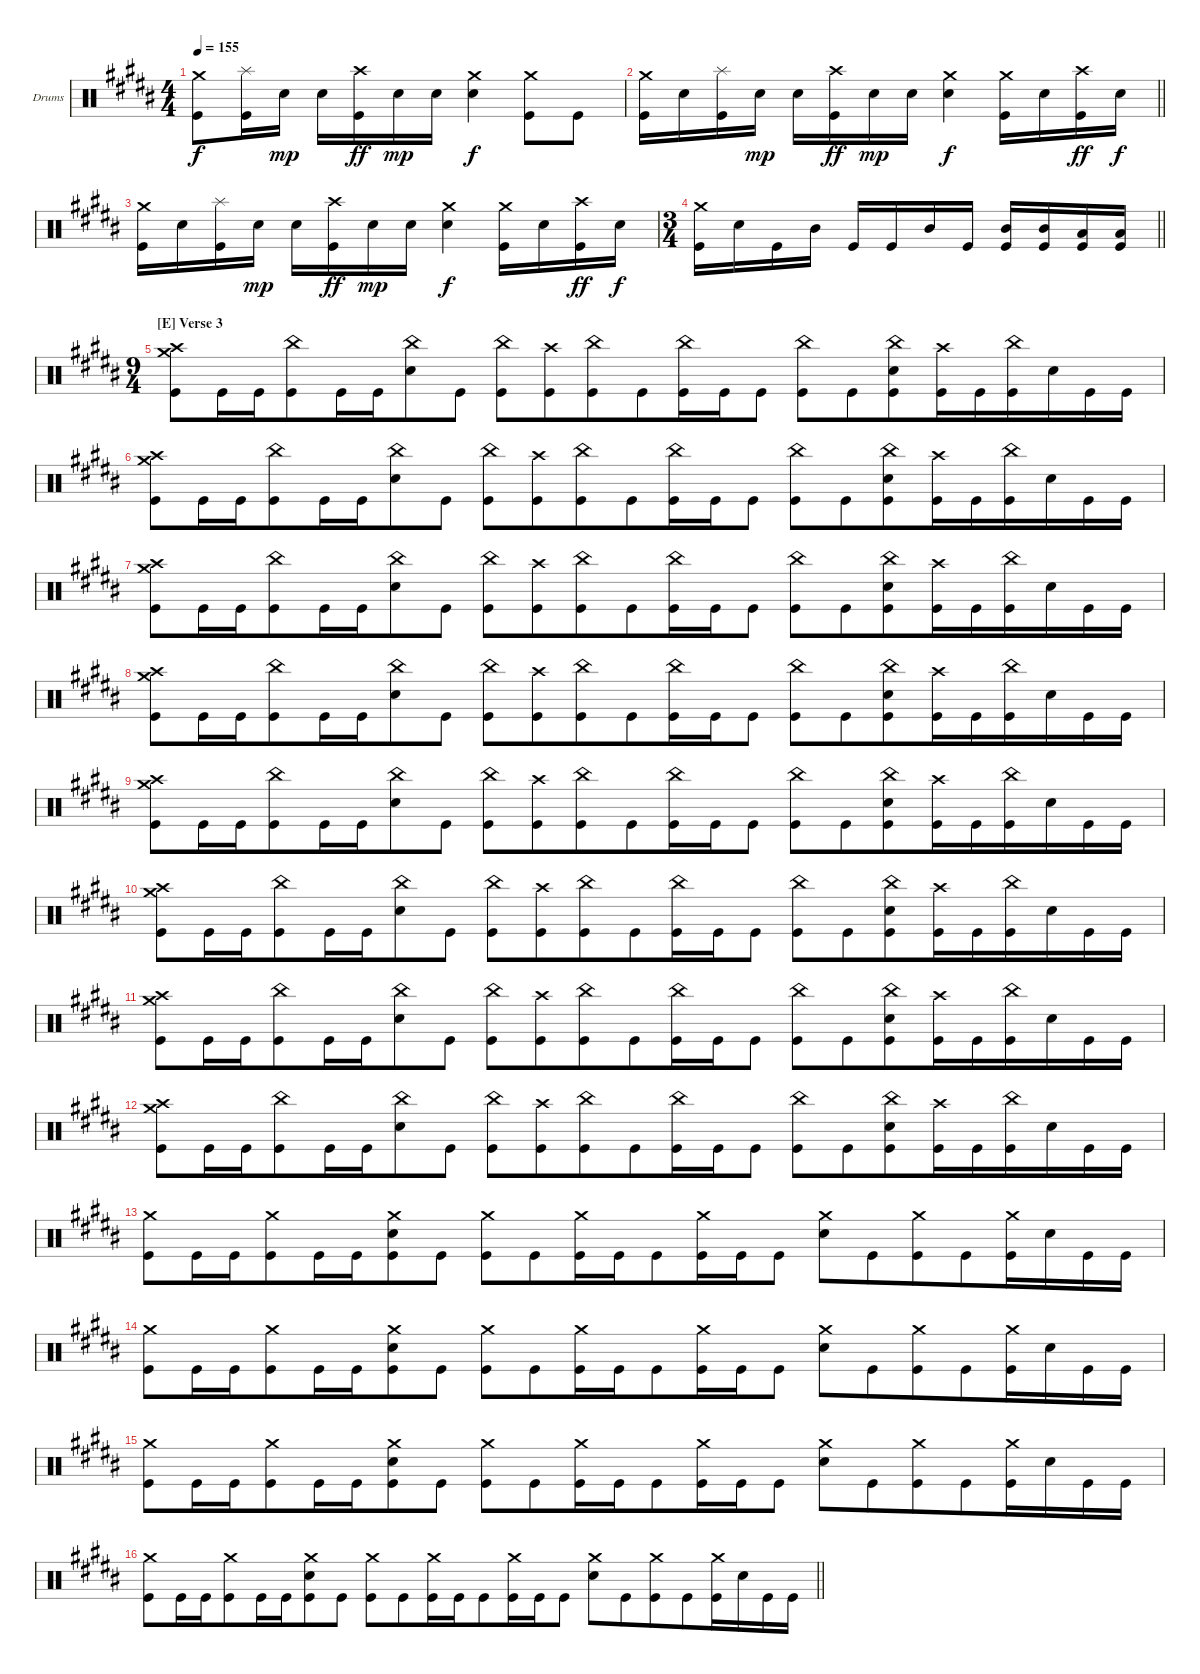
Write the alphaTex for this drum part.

\bracketExtendMode groupsimilarinstruments
\firstSystemTrackNameOrientation horizontal
\otherSystemsTrackNameOrientation horizontal
\track ("Navene Koperweis" "Drums") {instrument percussion}
\staff {score}
\articulation defaults
\ts (4 4)
\tempo 155
\clef neutral
\ks b
("Crash medium (hit)" "Kick (hit)").8{dy f} ("Splash (hit)" "Kick (hit)").16 "Snare (hit) 2".16{dy mp} "Snare (hit) 2".16 ("Crash high (hit)" "Kick (hit)").16{dy ff} "Snare (hit) 2".16{dy mp} "Snare (hit) 2".16 ("Crash medium (hit)" "Snare (hit) 2").4{dy f} ("Crash medium (hit)" "Kick (hit)").8 "Kick (hit)".8 |
\barLineRight lightlight
("Crash medium (hit)" "Kick (hit)").16 "Snare (hit) 2".16 ("Splash (hit)" "Kick (hit)").16 "Snare (hit) 2".16{dy mp} "Snare (hit) 2".16 ("Crash high (hit)" "Kick (hit)").16{dy ff} "Snare (hit) 2".16{dy mp} "Snare (hit) 2".16 ("Crash medium (hit)" "Snare (hit) 2").4{dy f} ("Crash medium (hit)" "Kick (hit)").16 "Snare (hit) 2".16 ("Crash high (hit)" "Kick (hit)").16{dy ff} "Snare (hit) 2".16{dy f} |
("Crash medium (hit)" "Kick (hit)").16 "Snare (hit) 2".16 ("Splash (hit)" "Kick (hit)").16 "Snare (hit) 2".16{dy mp} "Snare (hit) 2".16 ("Crash high (hit)" "Kick (hit)").16{dy ff} "Snare (hit) 2".16{dy mp} "Snare (hit) 2".16 ("Crash medium (hit)" "Snare (hit) 2").4{dy f} ("Crash medium (hit)" "Kick (hit)").16 "Snare (hit) 2".16 ("Crash high (hit)" "Kick (hit)").16{dy ff} "Snare (hit) 2".16{dy f} |
\ts (3 4)
\beaming (8 2 2 2)
\barLineRight lightlight
("Crash medium (hit)" "Kick (hit)").16 "Snare (hit) 2".16 "Kick (hit)".16 "Mid Tom (hit)".16 "Kick (hit)".16 "Kick (hit)".16 "Mid Tom (hit)".16 "Kick (hit)".16 ("Mid Tom (hit)" "Kick (hit)").16 ("Mid Tom (hit)" "Kick (hit)").16 ("Low Tom (hit)" "Kick (hit)").16 ("Low Tom (hit)" "Kick (hit)").16 |
\ts (9 4)
\beaming (8 6 6 6)
\section ("E" "Verse 3")
("Crash medium (hit)" "Crash high (hit)" "Kick (hit)").8 "Kick (hit)".16 "Kick (hit)".16 ("China (hit)" "Kick (hit)").8 "Kick (hit)".16 "Kick (hit)".16 ("China (hit)" "Snare (hit) 2").8 "Kick (hit)".8 ("China (hit)" "Kick (hit)").8 ("Crash high (hit)" "Kick (hit)").8 ("China (hit)" "Kick (hit)").8 "Kick (hit)".8 ("China (hit)" "Kick (hit)").16 "Kick (hit)".16 "Kick (hit)".8 ("China (hit)" "Kick (hit)").8 "Kick (hit)".8 ("China (hit)" "Snare (hit) 2" "Kick (hit)").8 ("Crash high (hit)" "Kick (hit)").16 "Kick (hit)".16 ("China (hit)" "Kick (hit)").16 "Snare (hit) 2".16 "Kick (hit)".16 "Kick (hit)".16 |
("Crash medium (hit)" "Crash high (hit)" "Kick (hit)").8 "Kick (hit)".16 "Kick (hit)".16 ("China (hit)" "Kick (hit)").8 "Kick (hit)".16 "Kick (hit)".16 ("China (hit)" "Snare (hit) 2").8 "Kick (hit)".8 ("China (hit)" "Kick (hit)").8 ("Crash high (hit)" "Kick (hit)").8 ("China (hit)" "Kick (hit)").8 "Kick (hit)".8 ("China (hit)" "Kick (hit)").16 "Kick (hit)".16 "Kick (hit)".8 ("China (hit)" "Kick (hit)").8 "Kick (hit)".8 ("China (hit)" "Snare (hit) 2" "Kick (hit)").8 ("Crash high (hit)" "Kick (hit)").16 "Kick (hit)".16 ("China (hit)" "Kick (hit)").16 "Snare (hit) 2".16 "Kick (hit)".16 "Kick (hit)".16 |
("Crash medium (hit)" "Crash high (hit)" "Kick (hit)").8 "Kick (hit)".16 "Kick (hit)".16 ("China (hit)" "Kick (hit)").8 "Kick (hit)".16 "Kick (hit)".16 ("China (hit)" "Snare (hit) 2").8 "Kick (hit)".8 ("China (hit)" "Kick (hit)").8 ("Crash high (hit)" "Kick (hit)").8 ("China (hit)" "Kick (hit)").8 "Kick (hit)".8 ("China (hit)" "Kick (hit)").16 "Kick (hit)".16 "Kick (hit)".8 ("China (hit)" "Kick (hit)").8 "Kick (hit)".8 ("China (hit)" "Snare (hit) 2" "Kick (hit)").8 ("Crash high (hit)" "Kick (hit)").16 "Kick (hit)".16 ("China (hit)" "Kick (hit)").16 "Snare (hit) 2".16 "Kick (hit)".16 "Kick (hit)".16 |
("Crash medium (hit)" "Crash high (hit)" "Kick (hit)").8 "Kick (hit)".16 "Kick (hit)".16 ("China (hit)" "Kick (hit)").8 "Kick (hit)".16 "Kick (hit)".16 ("China (hit)" "Snare (hit) 2").8 "Kick (hit)".8 ("China (hit)" "Kick (hit)").8 ("Crash high (hit)" "Kick (hit)").8 ("China (hit)" "Kick (hit)").8 "Kick (hit)".8 ("China (hit)" "Kick (hit)").16 "Kick (hit)".16 "Kick (hit)".8 ("China (hit)" "Kick (hit)").8 "Kick (hit)".8 ("China (hit)" "Snare (hit) 2" "Kick (hit)").8 ("Crash high (hit)" "Kick (hit)").16 "Kick (hit)".16 ("China (hit)" "Kick (hit)").16 "Snare (hit) 2".16 "Kick (hit)".16 "Kick (hit)".16 |
("Crash medium (hit)" "Crash high (hit)" "Kick (hit)").8 "Kick (hit)".16 "Kick (hit)".16 ("China (hit)" "Kick (hit)").8 "Kick (hit)".16 "Kick (hit)".16 ("China (hit)" "Snare (hit) 2").8 "Kick (hit)".8 ("China (hit)" "Kick (hit)").8 ("Crash high (hit)" "Kick (hit)").8 ("China (hit)" "Kick (hit)").8 "Kick (hit)".8 ("China (hit)" "Kick (hit)").16 "Kick (hit)".16 "Kick (hit)".8 ("China (hit)" "Kick (hit)").8 "Kick (hit)".8 ("China (hit)" "Snare (hit) 2" "Kick (hit)").8 ("Crash high (hit)" "Kick (hit)").16 "Kick (hit)".16 ("China (hit)" "Kick (hit)").16 "Snare (hit) 2".16 "Kick (hit)".16 "Kick (hit)".16 |
("Crash medium (hit)" "Crash high (hit)" "Kick (hit)").8 "Kick (hit)".16 "Kick (hit)".16 ("China (hit)" "Kick (hit)").8 "Kick (hit)".16 "Kick (hit)".16 ("China (hit)" "Snare (hit) 2").8 "Kick (hit)".8 ("China (hit)" "Kick (hit)").8 ("Crash high (hit)" "Kick (hit)").8 ("China (hit)" "Kick (hit)").8 "Kick (hit)".8 ("China (hit)" "Kick (hit)").16 "Kick (hit)".16 "Kick (hit)".8 ("China (hit)" "Kick (hit)").8 "Kick (hit)".8 ("China (hit)" "Snare (hit) 2" "Kick (hit)").8 ("Crash high (hit)" "Kick (hit)").16 "Kick (hit)".16 ("China (hit)" "Kick (hit)").16 "Snare (hit) 2".16 "Kick (hit)".16 "Kick (hit)".16 |
("Crash medium (hit)" "Crash high (hit)" "Kick (hit)").8 "Kick (hit)".16 "Kick (hit)".16 ("China (hit)" "Kick (hit)").8 "Kick (hit)".16 "Kick (hit)".16 ("China (hit)" "Snare (hit) 2").8 "Kick (hit)".8 ("China (hit)" "Kick (hit)").8 ("Crash high (hit)" "Kick (hit)").8 ("China (hit)" "Kick (hit)").8 "Kick (hit)".8 ("China (hit)" "Kick (hit)").16 "Kick (hit)".16 "Kick (hit)".8 ("China (hit)" "Kick (hit)").8 "Kick (hit)".8 ("China (hit)" "Snare (hit) 2" "Kick (hit)").8 ("Crash high (hit)" "Kick (hit)").16 "Kick (hit)".16 ("China (hit)" "Kick (hit)").16 "Snare (hit) 2".16 "Kick (hit)".16 "Kick (hit)".16 |
("Crash medium (hit)" "Crash high (hit)" "Kick (hit)").8 "Kick (hit)".16 "Kick (hit)".16 ("China (hit)" "Kick (hit)").8 "Kick (hit)".16 "Kick (hit)".16 ("China (hit)" "Snare (hit) 2").8 "Kick (hit)".8 ("China (hit)" "Kick (hit)").8 ("Crash high (hit)" "Kick (hit)").8 ("China (hit)" "Kick (hit)").8 "Kick (hit)".8 ("China (hit)" "Kick (hit)").16 "Kick (hit)".16 "Kick (hit)".8 ("China (hit)" "Kick (hit)").8 "Kick (hit)".8 ("China (hit)" "Snare (hit) 2" "Kick (hit)").8 ("Crash high (hit)" "Kick (hit)").16 "Kick (hit)".16 ("China (hit)" "Kick (hit)").16 "Snare (hit) 2".16 "Kick (hit)".16 "Kick (hit)".16 |
("Crash medium (hit)" "Kick (hit)").8 "Kick (hit)".16 "Kick (hit)".16 ("Crash medium (hit)" "Kick (hit)").8 "Kick (hit)".16 "Kick (hit)".16 ("Crash medium (hit)" "Snare (hit) 2" "Kick (hit)").8 "Kick (hit)".8 ("Crash medium (hit)" "Kick (hit)").8 "Kick (hit)".8 ("Crash medium (hit)" "Kick (hit)").16 "Kick (hit)".16 "Kick (hit)".8 ("Crash medium (hit)" "Kick (hit)").16 "Kick (hit)".16 "Kick (hit)".8 ("Crash medium (hit)" "Snare (hit) 2").8 "Kick (hit)".8 ("Crash medium (hit)" "Kick (hit)").8 "Kick (hit)".8 ("Crash medium (hit)" "Kick (hit)").16 "Snare (hit) 2".16 "Kick (hit)".16 "Kick (hit)".16 |
("Crash medium (hit)" "Kick (hit)").8 "Kick (hit)".16 "Kick (hit)".16 ("Crash medium (hit)" "Kick (hit)").8 "Kick (hit)".16 "Kick (hit)".16 ("Crash medium (hit)" "Snare (hit) 2" "Kick (hit)").8 "Kick (hit)".8 ("Crash medium (hit)" "Kick (hit)").8 "Kick (hit)".8 ("Crash medium (hit)" "Kick (hit)").16 "Kick (hit)".16 "Kick (hit)".8 ("Crash medium (hit)" "Kick (hit)").16 "Kick (hit)".16 "Kick (hit)".8 ("Crash medium (hit)" "Snare (hit) 2").8 "Kick (hit)".8 ("Crash medium (hit)" "Kick (hit)").8 "Kick (hit)".8 ("Crash medium (hit)" "Kick (hit)").16 "Snare (hit) 2".16 "Kick (hit)".16 "Kick (hit)".16 |
("Crash medium (hit)" "Kick (hit)").8 "Kick (hit)".16 "Kick (hit)".16 ("Crash medium (hit)" "Kick (hit)").8 "Kick (hit)".16 "Kick (hit)".16 ("Crash medium (hit)" "Snare (hit) 2" "Kick (hit)").8 "Kick (hit)".8 ("Crash medium (hit)" "Kick (hit)").8 "Kick (hit)".8 ("Crash medium (hit)" "Kick (hit)").16 "Kick (hit)".16 "Kick (hit)".8 ("Crash medium (hit)" "Kick (hit)").16 "Kick (hit)".16 "Kick (hit)".8 ("Crash medium (hit)" "Snare (hit) 2").8 "Kick (hit)".8 ("Crash medium (hit)" "Kick (hit)").8 "Kick (hit)".8 ("Crash medium (hit)" "Kick (hit)").16 "Snare (hit) 2".16 "Kick (hit)".16 "Kick (hit)".16 |
\barLineRight lightlight
("Crash medium (hit)" "Kick (hit)").8 "Kick (hit)".16 "Kick (hit)".16 ("Crash medium (hit)" "Kick (hit)").8 "Kick (hit)".16 "Kick (hit)".16 ("Crash medium (hit)" "Snare (hit) 2" "Kick (hit)").8 "Kick (hit)".8 ("Crash medium (hit)" "Kick (hit)").8 "Kick (hit)".8 ("Crash medium (hit)" "Kick (hit)").16 "Kick (hit)".16 "Kick (hit)".8 ("Crash medium (hit)" "Kick (hit)").16 "Kick (hit)".16 "Kick (hit)".8 ("Crash medium (hit)" "Snare (hit) 2").8 "Kick (hit)".8 ("Crash medium (hit)" "Kick (hit)").8 "Kick (hit)".8 ("Crash medium (hit)" "Kick (hit)").16 "Snare (hit) 2".16 "Kick (hit)".16 "Kick (hit)".16
